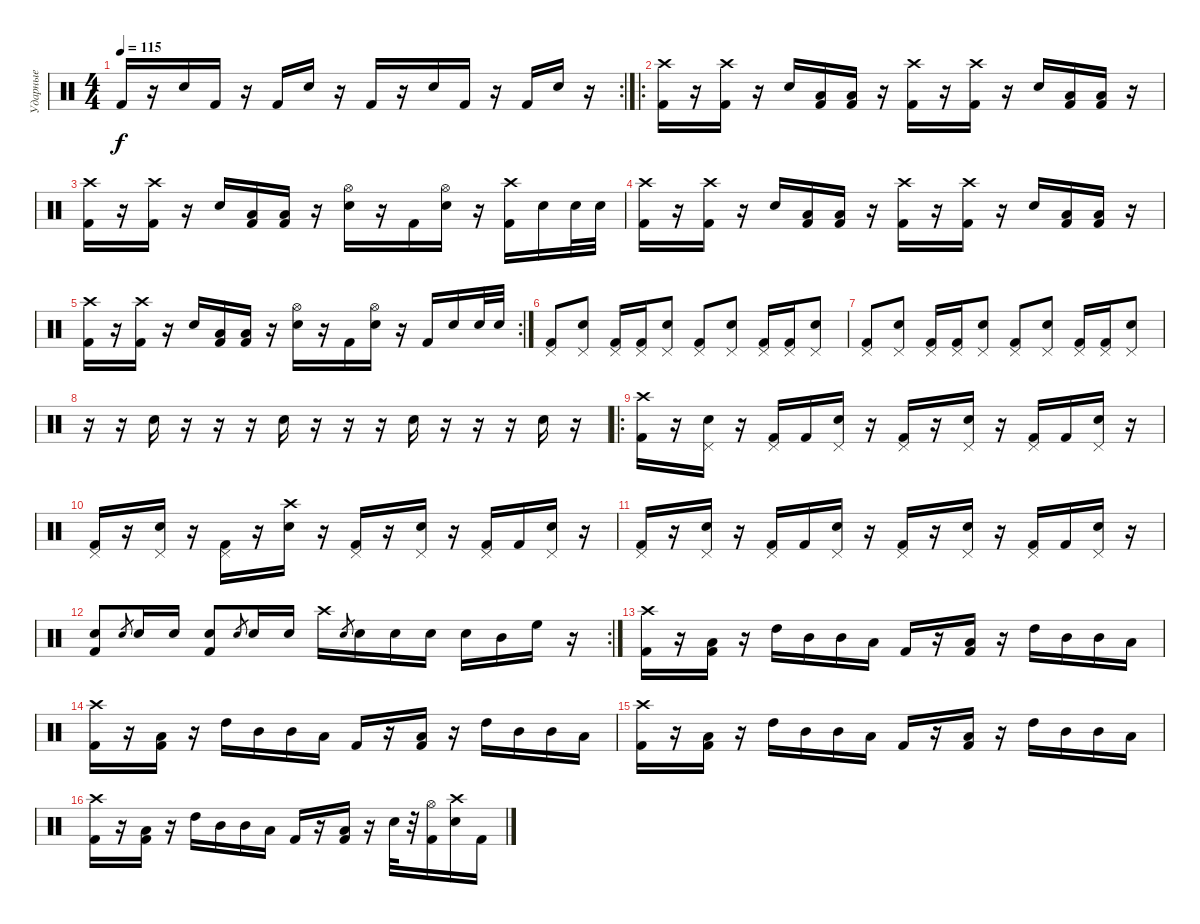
\track ("Ударные" "Ударные") {instrument percussion}
\staff
\articulation defaults
\rc 2
\ts (4 4)
\tempo 115
\clef neutral
\ks c "Kick (hit) 2".16{dy f}
r.16 "Electric Snare (hit)".16 "Kick (hit) 2".16 r.16 "Kick (hit) 2".16 "Electric Snare (hit)".16 r.16 "Kick (hit) 2".16 r.16 "Electric Snare (hit)".16 "Kick (hit) 2".16 r.16 "Kick (hit) 2".16 "Electric Snare (hit)".16 r.16 |
\ro
("Crash high (hit)" "Kick (hit) 2").16 r.16 ("Crash high (hit)" "Kick (hit) 2").16 r.16 "Electric Snare (hit)".16 ("Low Tom (hit)" "Kick (hit) 2").16 ("Low Tom (hit)" "Kick (hit) 2").16 r.16 ("Crash high (hit)" "Kick (hit) 2").16 r.16 ("Crash high (hit)" "Kick (hit) 2").16 r.16 "Electric Snare (hit)".16 ("Low Tom (hit)" "Kick (hit) 2").16 ("Low Tom (hit)" "Kick (hit) 2").16 r.16 |
("Crash high (hit)" "Kick (hit) 2").16 r.16 ("Crash high (hit)" "Kick (hit) 2").16 r.16 "Electric Snare (hit)".16 ("Low Tom (hit)" "Kick (hit) 2").16 ("Low Tom (hit)" "Kick (hit) 2").16 r.16 ("Hi-Hat (open)" "Electric Snare (hit)").16 r.16 "Kick (hit) 2".16 ("Hi-Hat (open)" "Electric Snare (hit)").16 r.16 ("Crash high (hit)" "Kick (hit) 2").16 "Electric Snare (hit)".16 "Electric Snare (hit)".32 "Electric Snare (hit)".32 |
("Crash high (hit)" "Kick (hit) 2").16 r.16 ("Crash high (hit)" "Kick (hit) 2").16 r.16 "Electric Snare (hit)".16 ("Low Tom (hit)" "Kick (hit) 2").16 ("Low Tom (hit)" "Kick (hit) 2").16 r.16 ("Crash high (hit)" "Kick (hit) 2").16 r.16 ("Crash high (hit)" "Kick (hit) 2").16 r.16 "Electric Snare (hit)".16 ("Low Tom (hit)" "Kick (hit) 2").16 ("Low Tom (hit)" "Kick (hit) 2").16 r.16 |
\rc 2
("Crash high (hit)" "Kick (hit) 2").16 r.16 ("Crash high (hit)" "Kick (hit) 2").16 r.16 "Electric Snare (hit)".16 ("Low Tom (hit)" "Kick (hit) 2").16 ("Low Tom (hit)" "Kick (hit) 2").16 r.16 ("Hi-Hat (open)" "Electric Snare (hit)").16 r.16 "Kick (hit) 2".16 ("Hi-Hat (open)" "Electric Snare (hit)").16 r.16 "Kick (hit) 2".16 "Electric Snare (hit)".16 "Electric Snare (hit)".32 "Electric Snare (hit)".32 |
("Pedal Hi-Hat (hit)" "Kick (hit) 2").8 ("Pedal Hi-Hat (hit)" "Electric Snare (hit)").8 ("Pedal Hi-Hat (hit)" "Kick (hit) 2").16 ("Pedal Hi-Hat (hit)" "Kick (hit) 2").16 ("Pedal Hi-Hat (hit)" "Electric Snare (hit)").8 ("Pedal Hi-Hat (hit)" "Kick (hit) 2").8 ("Pedal Hi-Hat (hit)" "Electric Snare (hit)").8 ("Pedal Hi-Hat (hit)" "Kick (hit) 2").16 ("Pedal Hi-Hat (hit)" "Kick (hit) 2").16 ("Pedal Hi-Hat (hit)" "Electric Snare (hit)").8 |
("Pedal Hi-Hat (hit)" "Kick (hit) 2").8 ("Pedal Hi-Hat (hit)" "Electric Snare (hit)").8 ("Pedal Hi-Hat (hit)" "Kick (hit) 2").16 ("Pedal Hi-Hat (hit)" "Kick (hit) 2").16 ("Pedal Hi-Hat (hit)" "Electric Snare (hit)").8 ("Pedal Hi-Hat (hit)" "Kick (hit) 2").8 ("Pedal Hi-Hat (hit)" "Electric Snare (hit)").8 ("Pedal Hi-Hat (hit)" "Kick (hit) 2").16 ("Pedal Hi-Hat (hit)" "Kick (hit) 2").16 ("Pedal Hi-Hat (hit)" "Electric Snare (hit)").8 |
r.16 r.16 "Electric Snare (hit)".16 r.16 r.16 r.16 "Electric Snare (hit)".16 r.16 r.16 r.16 "Electric Snare (hit)".16 r.16 r.16 r.16 "Electric Snare (hit)".16 r.16 |
\ro
("Crash high (hit)" "Kick (hit) 2").16 r.16 ("Pedal Hi-Hat (hit)" "Electric Snare (hit)").16 r.16 ("Pedal Hi-Hat (hit)" "Kick (hit) 2").16 "Kick (hit) 2".16 ("Pedal Hi-Hat (hit)" "Electric Snare (hit)").16 r.16 ("Pedal Hi-Hat (hit)" "Kick (hit) 2").16 r.16 ("Pedal Hi-Hat (hit)" "Electric Snare (hit)").16 r.16 ("Pedal Hi-Hat (hit)" "Kick (hit) 2").16 "Kick (hit) 2".16 ("Pedal Hi-Hat (hit)" "Electric Snare (hit)").16 r.16 |
("Pedal Hi-Hat (hit)" "Kick (hit) 2").16 r.16 ("Pedal Hi-Hat (hit)" "Electric Snare (hit)").16 r.16 ("Pedal Hi-Hat (hit)" "Kick (hit) 2").16 r.16 ("Crash high (hit)" "Electric Snare (hit)").16 r.16 ("Pedal Hi-Hat (hit)" "Kick (hit) 2").16 r.16 ("Pedal Hi-Hat (hit)" "Electric Snare (hit)").16 r.16 ("Pedal Hi-Hat (hit)" "Kick (hit) 2").16 "Kick (hit) 2".16 ("Pedal Hi-Hat (hit)" "Electric Snare (hit)").16 r.16 |
("Pedal Hi-Hat (hit)" "Kick (hit) 2").16 r.16 ("Pedal Hi-Hat (hit)" "Electric Snare (hit)").16 r.16 ("Pedal Hi-Hat (hit)" "Kick (hit) 2").16 "Kick (hit) 2".16 ("Pedal Hi-Hat (hit)" "Electric Snare (hit)").16 r.16 ("Pedal Hi-Hat (hit)" "Kick (hit) 2").16 r.16 ("Pedal Hi-Hat (hit)" "Electric Snare (hit)").16 r.16 ("Pedal Hi-Hat (hit)" "Kick (hit) 2").16 "Kick (hit) 2".16 ("Pedal Hi-Hat (hit)" "Electric Snare (hit)").16 r.16 |
\rc 2
("Electric Snare (hit)" "Kick (hit) 2").8 "Electric Snare (hit)".8{gr} "Electric Snare (hit)".16 "Electric Snare (hit)".16 ("Electric Snare (hit)" "Kick (hit) 2").8 "Electric Snare (hit)".8{gr} "Electric Snare (hit)".16 "Electric Snare (hit)".16 "Crash high (hit)".16 "Electric Snare (hit)".8{gr} "Electric Snare (hit)".16 "Electric Snare (hit)".16 "Electric Snare (hit)".16 "Electric Snare (hit)".16 "Mid Tom (hit)".16 "High Floor Tom (hit)".16 r.16 |
("Crash high (hit)" "Kick (hit) 2").16 r.16 ("Low Tom (hit)" "Kick (hit) 2").16 r.16 "High Tom (hit)".16 "Mid Tom (hit)".16 "Mid Tom (hit)".16 "Low Tom (hit)".16 "Kick (hit) 2".16 r.16 ("Low Tom (hit)" "Kick (hit) 2").16 r.16 "High Tom (hit)".16 "Mid Tom (hit)".16 "Mid Tom (hit)".16 "Low Tom (hit)".16 |
("Crash high (hit)" "Kick (hit) 2").16 r.16 ("Low Tom (hit)" "Kick (hit) 2").16 r.16 "High Tom (hit)".16 "Mid Tom (hit)".16 "Mid Tom (hit)".16 "Low Tom (hit)".16 "Kick (hit) 2".16 r.16 ("Low Tom (hit)" "Kick (hit) 2").16 r.16 "High Tom (hit)".16 "Mid Tom (hit)".16 "Mid Tom (hit)".16 "Low Tom (hit)".16 |
("Crash high (hit)" "Kick (hit) 2").16 r.16 ("Low Tom (hit)" "Kick (hit) 2").16 r.16 "High Tom (hit)".16 "Mid Tom (hit)".16 "Mid Tom (hit)".16 "Low Tom (hit)".16 "Kick (hit) 2".16 r.16 ("Low Tom (hit)" "Kick (hit) 2").16 r.16 "High Tom (hit)".16 "Mid Tom (hit)".16 "Mid Tom (hit)".16 "Low Tom (hit)".16 |
("Crash high (hit)" "Kick (hit) 2").16 r.16 ("Low Tom (hit)" "Kick (hit) 2").16 r.16 "High Tom (hit)".16 "Mid Tom (hit)".16 "Mid Tom (hit)".16 "Low Tom (hit)".16 "Kick (hit) 2".16 r.16 ("Low Tom (hit)" "Kick (hit) 2").16 r.16 "Electric Snare (hit)".32 r.32 ("Hi-Hat (open)" "Kick (hit) 2").16 ("Crash high (hit)" "Electric Snare (hit)").16 "Kick (hit) 2".16
